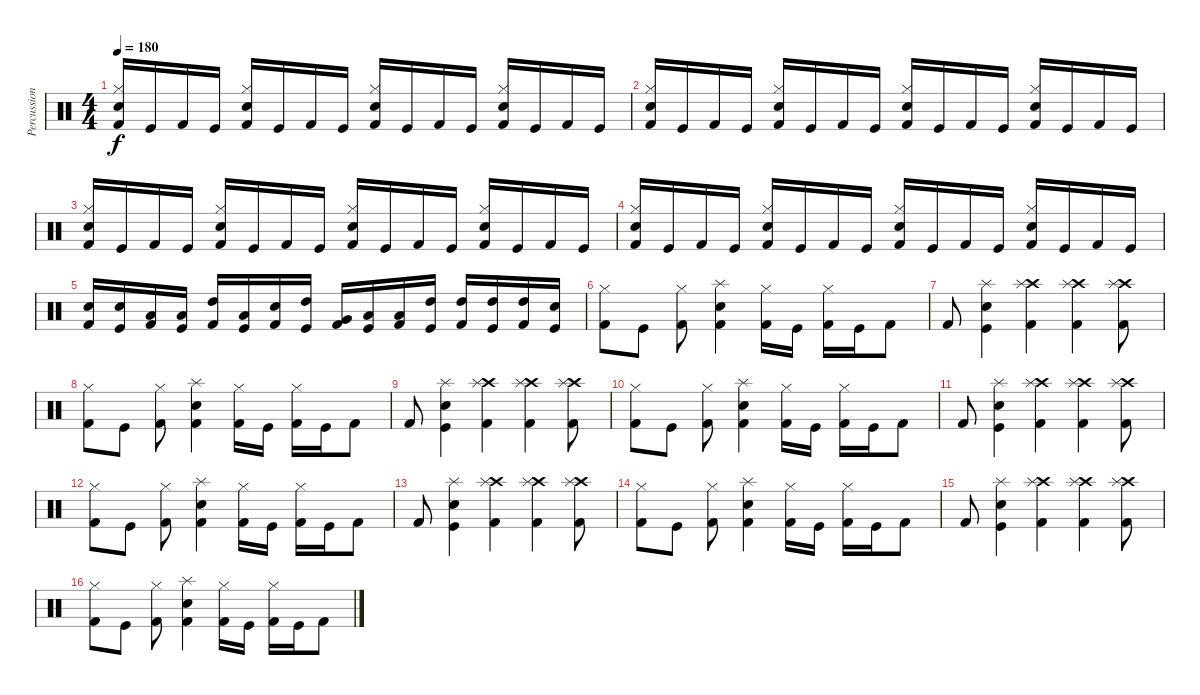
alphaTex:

\track ("Percussion" "Percussion") {instrument percussion}
\staff {score}
\articulation defaults
\ts (4 4)
\tempo 180
\clef neutral
\ks c
("Electric Snare (hit)" "Hi-Hat (closed)" "Kick (hit) 2").16{dy f} "Kick (hit)".16 "Kick (hit) 2".16 "Kick (hit)".16 ("Hi-Hat (closed)" "Electric Snare (hit)" "Kick (hit) 2").16 "Kick (hit)".16 "Kick (hit) 2".16 "Kick (hit)".16 ("Hi-Hat (closed)" "Electric Snare (hit)" "Kick (hit) 2").16 "Kick (hit)".16 "Kick (hit) 2".16 "Kick (hit)".16 ("Hi-Hat (closed)" "Electric Snare (hit)" "Kick (hit) 2").16 "Kick (hit)".16 "Kick (hit) 2".16 "Kick (hit)".16 |
("Electric Snare (hit)" "Hi-Hat (closed)" "Kick (hit) 2").16 "Kick (hit)".16 "Kick (hit) 2".16 "Kick (hit)".16 ("Hi-Hat (closed)" "Electric Snare (hit)" "Kick (hit) 2").16 "Kick (hit)".16 "Kick (hit) 2".16 "Kick (hit)".16 ("Hi-Hat (closed)" "Electric Snare (hit)" "Kick (hit) 2").16 "Kick (hit)".16 "Kick (hit) 2".16 "Kick (hit)".16 ("Hi-Hat (closed)" "Electric Snare (hit)" "Kick (hit) 2").16 "Kick (hit)".16 "Kick (hit) 2".16 "Kick (hit)".16 |
("Electric Snare (hit)" "Hi-Hat (closed)" "Kick (hit) 2").16 "Kick (hit)".16 "Kick (hit) 2".16 "Kick (hit)".16 ("Hi-Hat (closed)" "Electric Snare (hit)" "Kick (hit) 2").16 "Kick (hit)".16 "Kick (hit) 2".16 "Kick (hit)".16 ("Hi-Hat (closed)" "Electric Snare (hit)" "Kick (hit) 2").16 "Kick (hit)".16 "Kick (hit) 2".16 "Kick (hit)".16 ("Hi-Hat (closed)" "Electric Snare (hit)" "Kick (hit) 2").16 "Kick (hit)".16 "Kick (hit) 2".16 "Kick (hit)".16 |
("Electric Snare (hit)" "Hi-Hat (closed)" "Kick (hit) 2").16 "Kick (hit)".16 "Kick (hit) 2".16 "Kick (hit)".16 ("Hi-Hat (closed)" "Electric Snare (hit)" "Kick (hit) 2").16 "Kick (hit)".16 "Kick (hit) 2".16 "Kick (hit)".16 ("Hi-Hat (closed)" "Electric Snare (hit)" "Kick (hit) 2").16 "Kick (hit)".16 "Kick (hit) 2".16 "Kick (hit)".16 ("Hi-Hat (closed)" "Electric Snare (hit)" "Kick (hit) 2").16 "Kick (hit)".16 "Kick (hit) 2".16 "Kick (hit)".16 |
("Electric Snare (hit)" "Kick (hit) 2").16 ("Electric Snare (hit)" "Kick (hit)").16 ("Low Tom (hit)" "Kick (hit) 2").16 ("Low Tom (hit)" "Kick (hit)").16 ("High Tom (hit)" "Kick (hit) 2").16 ("Low Tom (hit)" "Kick (hit)").16 ("Electric Snare (hit)" "Kick (hit) 2").16 ("High Tom (hit)" "Kick (hit)").16 ("Very Low Tom (hit)" "Kick (hit) 2").16 ("Low Tom (hit)" "Kick (hit)").16 ("Low Tom (hit)" "Kick (hit) 2").16 ("High Tom (hit)" "Kick (hit)").16 ("High Tom (hit)" "Kick (hit) 2").16 ("High Tom (hit)" "Kick (hit)").16 ("High Tom (hit)" "Kick (hit) 2").16 ("Electric Snare (hit)" "Kick (hit)").16 |
("Hi-Hat (closed)" "Kick (hit) 2").8 "Kick (hit)".8 ("Hi-Hat (closed)" "Kick (hit) 2").8 ("Splash (hit)" "Electric Snare (hit)" "Kick (hit) 2").4 ("Hi-Hat (closed)" "Kick (hit) 2").16 "Kick (hit)".16 ("Hi-Hat (closed)" "Kick (hit) 2").16 "Kick (hit)".16 "Kick (hit) 2".8 |
"Kick (hit) 2".8 ("Splash (hit)" "Electric Snare (hit)" "Kick (hit)").4 ("Crash high (hit)" "Splash (hit)" "Kick (hit) 2").4 ("Crash high (hit)" "Splash (hit)" "Kick (hit) 2").4 ("Crash high (hit)" "Splash (hit)" "Kick (hit) 2").8 |
("Hi-Hat (closed)" "Kick (hit) 2").8 "Kick (hit)".8 ("Hi-Hat (closed)" "Kick (hit) 2").8 ("Splash (hit)" "Electric Snare (hit)" "Kick (hit) 2").4 ("Hi-Hat (closed)" "Kick (hit) 2").16 "Kick (hit)".16 ("Hi-Hat (closed)" "Kick (hit) 2").16 "Kick (hit)".16 "Kick (hit) 2".8 |
"Kick (hit) 2".8 ("Splash (hit)" "Electric Snare (hit)" "Kick (hit)").4 ("Crash high (hit)" "Splash (hit)" "Kick (hit) 2").4 ("Crash high (hit)" "Splash (hit)" "Kick (hit) 2").4 ("Crash high (hit)" "Splash (hit)" "Kick (hit) 2").8 |
("Hi-Hat (closed)" "Kick (hit) 2").8 "Kick (hit)".8 ("Hi-Hat (closed)" "Kick (hit) 2").8 ("Splash (hit)" "Electric Snare (hit)" "Kick (hit) 2").4 ("Hi-Hat (closed)" "Kick (hit) 2").16 "Kick (hit)".16 ("Hi-Hat (closed)" "Kick (hit) 2").16 "Kick (hit)".16 "Kick (hit) 2".8 |
"Kick (hit) 2".8 ("Splash (hit)" "Electric Snare (hit)" "Kick (hit)").4 ("Crash high (hit)" "Splash (hit)" "Kick (hit) 2").4 ("Crash high (hit)" "Splash (hit)" "Kick (hit) 2").4 ("Crash high (hit)" "Splash (hit)" "Kick (hit) 2").8 |
("Hi-Hat (closed)" "Kick (hit) 2").8 "Kick (hit)".8 ("Hi-Hat (closed)" "Kick (hit) 2").8 ("Splash (hit)" "Electric Snare (hit)" "Kick (hit) 2").4 ("Hi-Hat (closed)" "Kick (hit) 2").16 "Kick (hit)".16 ("Hi-Hat (closed)" "Kick (hit) 2").16 "Kick (hit)".16 "Kick (hit) 2".8 |
"Kick (hit) 2".8 ("Splash (hit)" "Electric Snare (hit)" "Kick (hit)").4 ("Crash high (hit)" "Splash (hit)" "Kick (hit) 2").4 ("Crash high (hit)" "Splash (hit)" "Kick (hit) 2").4 ("Crash high (hit)" "Splash (hit)" "Kick (hit) 2").8 |
("Hi-Hat (closed)" "Kick (hit) 2").8 "Kick (hit)".8 ("Hi-Hat (closed)" "Kick (hit) 2").8 ("Splash (hit)" "Electric Snare (hit)" "Kick (hit) 2").4 ("Hi-Hat (closed)" "Kick (hit) 2").16 "Kick (hit)".16 ("Hi-Hat (closed)" "Kick (hit) 2").16 "Kick (hit)".16 "Kick (hit) 2".8 |
"Kick (hit) 2".8 ("Splash (hit)" "Electric Snare (hit)" "Kick (hit)").4 ("Crash high (hit)" "Splash (hit)" "Kick (hit) 2").4 ("Crash high (hit)" "Splash (hit)" "Kick (hit) 2").4 ("Crash high (hit)" "Splash (hit)" "Kick (hit) 2").8 |
("Hi-Hat (closed)" "Kick (hit) 2").8 "Kick (hit)".8 ("Hi-Hat (closed)" "Kick (hit) 2").8 ("Splash (hit)" "Electric Snare (hit)" "Kick (hit) 2").4 ("Hi-Hat (closed)" "Kick (hit) 2").16 "Kick (hit)".16 ("Hi-Hat (closed)" "Kick (hit) 2").16 "Kick (hit)".16 "Kick (hit) 2".8
